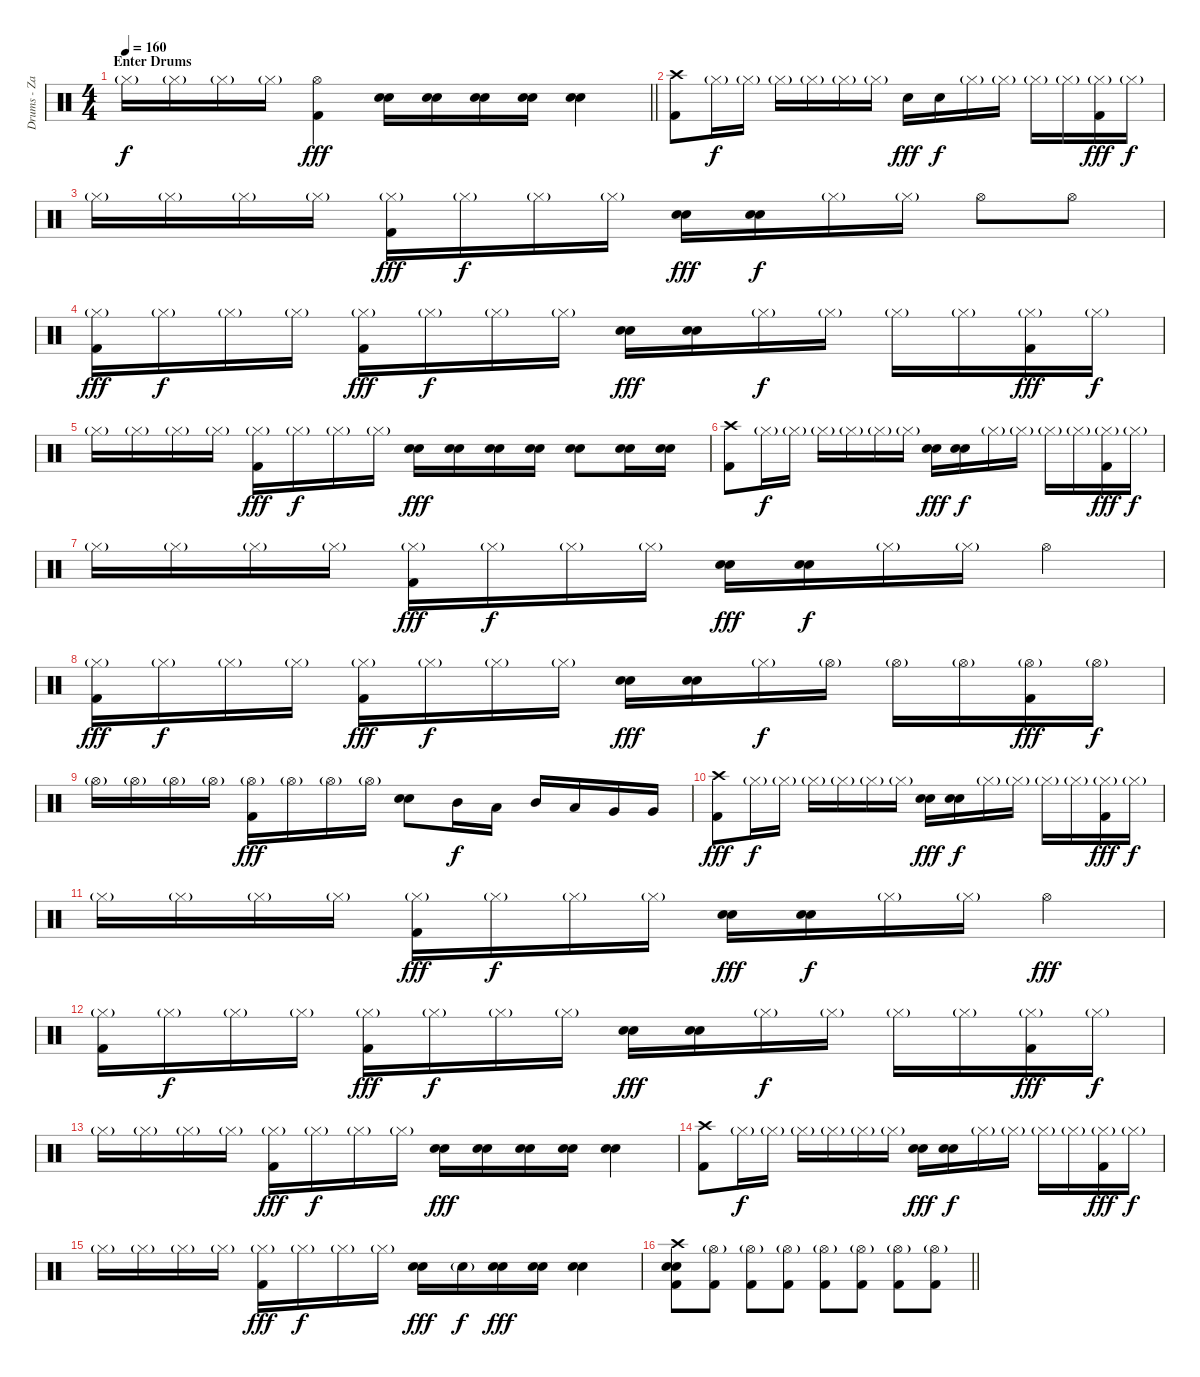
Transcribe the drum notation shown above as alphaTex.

\track ("Drums - Zac Farro" "Drums - Za") {instrument percussion}
\staff {score}
\articulation defaults
\ts (4 4)
\section ("" "Enter Drums")
\tempo 160
\clef neutral
\barLineRight lightlight
\ks c "Hi-Hat (closed)"{g}.16{dy f} "Hi-Hat (closed)"{g}.16 "Hi-Hat (closed)"{g}.16 "Hi-Hat (closed)"{g}.16
("Hi-Hat (open)" "Kick (hit) 2").4{dy fff} ("Electric Snare (hit)" "Electric Snare (hit)").16 ("Electric Snare (hit)" "Electric Snare (hit)").16 ("Electric Snare (hit)" "Electric Snare (hit)").16 ("Electric Snare (hit)" "Electric Snare (hit)").16 ("Electric Snare (hit)" "Electric Snare (hit)").4 |
("Crash high (hit)" "Kick (hit) 2").8 "Hi-Hat (closed)"{g}.16{dy f} "Hi-Hat (closed)"{g}.16 "Hi-Hat (closed)"{g}.16 "Hi-Hat (closed)"{g}.16 "Hi-Hat (closed)"{g}.16 "Hi-Hat (closed)"{g}.16 "Electric Snare (hit)".16{dy fff} "Electric Snare (hit)".16{dy f} "Hi-Hat (closed)"{g}.16 "Hi-Hat (closed)"{g}.16 "Hi-Hat (closed)"{g}.16 "Hi-Hat (closed)"{g}.16 ("Hi-Hat (closed)"{g} "Kick (hit) 2").16{dy fff} "Hi-Hat (closed)"{g}.16{dy f} |
"Hi-Hat (closed)"{g}.16 "Hi-Hat (closed)"{g}.16 "Hi-Hat (closed)"{g}.16 "Hi-Hat (closed)"{g}.16 ("Hi-Hat (closed)"{g} "Kick (hit) 2").16{dy fff} "Hi-Hat (closed)"{g}.16{dy f} "Hi-Hat (closed)"{g}.16 "Hi-Hat (closed)"{g}.16 ("Electric Snare (hit)" "Electric Snare (hit)").16{dy fff} ("Electric Snare (hit)" "Electric Snare (hit)").16{dy f} "Hi-Hat (closed)"{g}.16 "Hi-Hat (closed)"{g}.16 "Hi-Hat (open)".8 "Hi-Hat (open)".8 |
("Hi-Hat (closed)"{g} "Kick (hit) 2").16{dy fff} "Hi-Hat (closed)"{g}.16{dy f} "Hi-Hat (closed)"{g}.16 "Hi-Hat (closed)"{g}.16 ("Hi-Hat (closed)"{g} "Kick (hit) 2").16{dy fff} "Hi-Hat (closed)"{g}.16{dy f} "Hi-Hat (closed)"{g}.16 "Hi-Hat (closed)"{g}.16 ("Electric Snare (hit)" "Electric Snare (hit)").16{dy fff} ("Electric Snare (hit)" "Electric Snare (hit)").16 "Hi-Hat (closed)"{g}.16{dy f} "Hi-Hat (closed)"{g}.16 "Hi-Hat (closed)"{g}.16 "Hi-Hat (closed)"{g}.16 ("Hi-Hat (closed)"{g} "Kick (hit) 2").16{dy fff} "Hi-Hat (closed)"{g}.16{dy f} |
"Hi-Hat (closed)"{g}.16 "Hi-Hat (closed)"{g}.16 "Hi-Hat (closed)"{g}.16 "Hi-Hat (closed)"{g}.16 ("Hi-Hat (closed)"{g} "Kick (hit) 2").16{dy fff} "Hi-Hat (closed)"{g}.16{dy f} "Hi-Hat (closed)"{g}.16 "Hi-Hat (closed)"{g}.16 ("Electric Snare (hit)" "Electric Snare (hit)").16{dy fff} ("Electric Snare (hit)" "Electric Snare (hit)").16 ("Electric Snare (hit)" "Electric Snare (hit)").16 ("Electric Snare (hit)" "Electric Snare (hit)").16 ("Electric Snare (hit)" "Electric Snare (hit)").8 ("Electric Snare (hit)" "Electric Snare (hit)").16 ("Electric Snare (hit)" "Electric Snare (hit)").16 |
("Crash high (hit)" "Kick (hit) 2").8 "Hi-Hat (closed)"{g}.16{dy f} "Hi-Hat (closed)"{g}.16 "Hi-Hat (closed)"{g}.16 "Hi-Hat (closed)"{g}.16 "Hi-Hat (closed)"{g}.16 "Hi-Hat (closed)"{g}.16 ("Electric Snare (hit)" "Electric Snare (hit)").16{dy fff} ("Electric Snare (hit)" "Electric Snare (hit)").16{dy f} "Hi-Hat (closed)"{g}.16 "Hi-Hat (closed)"{g}.16 "Hi-Hat (closed)"{g}.16 "Hi-Hat (closed)"{g}.16 ("Hi-Hat (closed)"{g} "Kick (hit) 2").16{dy fff} "Hi-Hat (closed)"{g}.16{dy f} |
"Hi-Hat (closed)"{g}.16 "Hi-Hat (closed)"{g}.16 "Hi-Hat (closed)"{g}.16 "Hi-Hat (closed)"{g}.16 ("Hi-Hat (closed)"{g} "Kick (hit) 2").16{dy fff} "Hi-Hat (closed)"{g}.16{dy f} "Hi-Hat (closed)"{g}.16 "Hi-Hat (closed)"{g}.16 ("Electric Snare (hit)" "Electric Snare (hit)").16{dy fff} ("Electric Snare (hit)" "Electric Snare (hit)").16{dy f} "Hi-Hat (closed)"{g}.16 "Hi-Hat (closed)"{g}.16 "Hi-Hat (open)".4 |
("Hi-Hat (closed)"{g} "Kick (hit) 2").16{dy fff} "Hi-Hat (closed)"{g}.16{dy f} "Hi-Hat (closed)"{g}.16 "Hi-Hat (closed)"{g}.16 ("Hi-Hat (closed)"{g} "Kick (hit) 2").16{dy fff} "Hi-Hat (closed)"{g}.16{dy f} "Hi-Hat (closed)"{g}.16 "Hi-Hat (closed)"{g}.16 ("Electric Snare (hit)" "Electric Snare (hit)").16{dy fff} ("Electric Snare (hit)" "Electric Snare (hit)").16 "Hi-Hat (closed)"{g}.16{dy f} "Hi-Hat (open)"{g}.16 "Hi-Hat (open)"{g}.16 "Hi-Hat (open)"{g}.16 ("Hi-Hat (open)"{g} "Kick (hit) 2").16{dy fff} "Hi-Hat (open)"{g}.16{dy f} |
"Hi-Hat (open)"{g}.16 "Hi-Hat (open)"{g}.16 "Hi-Hat (open)"{g}.16 "Hi-Hat (open)"{g}.16 ("Hi-Hat (open)"{g} "Kick (hit) 2").16{dy fff} "Hi-Hat (open)"{g}.16 "Hi-Hat (open)"{g}.16 "Hi-Hat (open)"{g}.16 ("Electric Snare (hit)" "Electric Snare (hit)").8 "Mid Tom (hit)".16{dy f} "Low Tom (hit)".16 "Mid Tom (hit)".16 "Low Tom (hit)".16 "Very Low Tom (hit)".16 "Very Low Tom (hit)".16 |
("Crash high (hit)" "Kick (hit) 2").8{dy fff} "Hi-Hat (closed)"{g}.16{dy f} "Hi-Hat (closed)"{g}.16 "Hi-Hat (closed)"{g}.16 "Hi-Hat (closed)"{g}.16 "Hi-Hat (closed)"{g}.16 "Hi-Hat (closed)"{g}.16 ("Electric Snare (hit)" "Electric Snare (hit)").16{dy fff} ("Electric Snare (hit)" "Electric Snare (hit)").16{dy f} "Hi-Hat (closed)"{g}.16 "Hi-Hat (closed)"{g}.16 "Hi-Hat (closed)"{g}.16 "Hi-Hat (closed)"{g}.16 ("Hi-Hat (closed)"{g} "Kick (hit) 2").16{dy fff} "Hi-Hat (closed)"{g}.16{dy f} |
"Hi-Hat (closed)"{g}.16 "Hi-Hat (closed)"{g}.16 "Hi-Hat (closed)"{g}.16 "Hi-Hat (closed)"{g}.16 ("Hi-Hat (closed)"{g} "Kick (hit) 2").16{dy fff} "Hi-Hat (closed)"{g}.16{dy f} "Hi-Hat (closed)"{g}.16 "Hi-Hat (closed)"{g}.16 ("Electric Snare (hit)" "Electric Snare (hit)").16{dy fff} ("Electric Snare (hit)" "Electric Snare (hit)").16{dy f} "Hi-Hat (closed)"{g}.16 "Hi-Hat (closed)"{g}.16 "Hi-Hat (open)".4{dy fff} |
("Hi-Hat (closed)"{g} "Kick (hit) 2").16 "Hi-Hat (closed)"{g}.16{dy f} "Hi-Hat (closed)"{g}.16 "Hi-Hat (closed)"{g}.16 ("Hi-Hat (closed)"{g} "Kick (hit) 2").16{dy fff} "Hi-Hat (closed)"{g}.16{dy f} "Hi-Hat (closed)"{g}.16 "Hi-Hat (closed)"{g}.16 ("Electric Snare (hit)" "Electric Snare (hit)").16{dy fff} ("Electric Snare (hit)" "Electric Snare (hit)").16 "Hi-Hat (closed)"{g}.16{dy f} "Hi-Hat (closed)"{g}.16 "Hi-Hat (closed)"{g}.16 "Hi-Hat (closed)"{g}.16 ("Hi-Hat (closed)"{g} "Kick (hit) 2").16{dy fff} "Hi-Hat (closed)"{g}.16{dy f} |
"Hi-Hat (closed)"{g}.16 "Hi-Hat (closed)"{g}.16 "Hi-Hat (closed)"{g}.16 "Hi-Hat (closed)"{g}.16 ("Hi-Hat (closed)"{g} "Kick (hit) 2").16{dy fff} "Hi-Hat (closed)"{g}.16{dy f} "Hi-Hat (closed)"{g}.16 "Hi-Hat (closed)"{g}.16 ("Electric Snare (hit)" "Electric Snare (hit)").16{dy fff} ("Electric Snare (hit)" "Electric Snare (hit)").16 ("Electric Snare (hit)" "Electric Snare (hit)").16 ("Electric Snare (hit)" "Electric Snare (hit)").16 ("Electric Snare (hit)" "Electric Snare (hit)").4 |
("Crash high (hit)" "Kick (hit) 2").8 "Hi-Hat (closed)"{g}.16{dy f} "Hi-Hat (closed)"{g}.16 "Hi-Hat (closed)"{g}.16 "Hi-Hat (closed)"{g}.16 "Hi-Hat (closed)"{g}.16 "Hi-Hat (closed)"{g}.16 ("Electric Snare (hit)" "Electric Snare (hit)").16{dy fff} ("Electric Snare (hit)" "Electric Snare (hit)").16{dy f} "Hi-Hat (closed)"{g}.16 "Hi-Hat (closed)"{g}.16 "Hi-Hat (closed)"{g}.16 "Hi-Hat (closed)"{g}.16 ("Hi-Hat (closed)"{g} "Kick (hit) 2").16{dy fff} "Hi-Hat (closed)"{g}.16{dy f} |
"Hi-Hat (closed)"{g}.16 "Hi-Hat (closed)"{g}.16 "Hi-Hat (closed)"{g}.16 "Hi-Hat (closed)"{g}.16 ("Hi-Hat (closed)"{g} "Kick (hit) 2").16{dy fff} "Hi-Hat (closed)"{g}.16{dy f} "Hi-Hat (closed)"{g}.16 "Hi-Hat (closed)"{g}.16 ("Electric Snare (hit)" "Electric Snare (hit)").16{dy fff} "Electric Snare (hit)"{g}.16{dy f} ("Electric Snare (hit)" "Electric Snare (hit)").16{dy fff} ("Electric Snare (hit)" "Electric Snare (hit)").16 ("Electric Snare (hit)" "Electric Snare (hit)").4 |
\barLineRight lightlight
("Crash high (hit)" "Electric Snare (hit)" "Electric Snare (hit)" "Kick (hit) 2").8 ("Hi-Hat (open)"{g} "Kick (hit) 2").8 ("Hi-Hat (open)"{g} "Kick (hit) 2").8 ("Hi-Hat (open)"{g} "Kick (hit) 2").8 ("Hi-Hat (open)"{g} "Kick (hit) 2").8 ("Hi-Hat (open)"{g} "Kick (hit) 2").8 ("Hi-Hat (open)"{g} "Kick (hit) 2").8 ("Hi-Hat (open)"{g} "Kick (hit) 2").8
